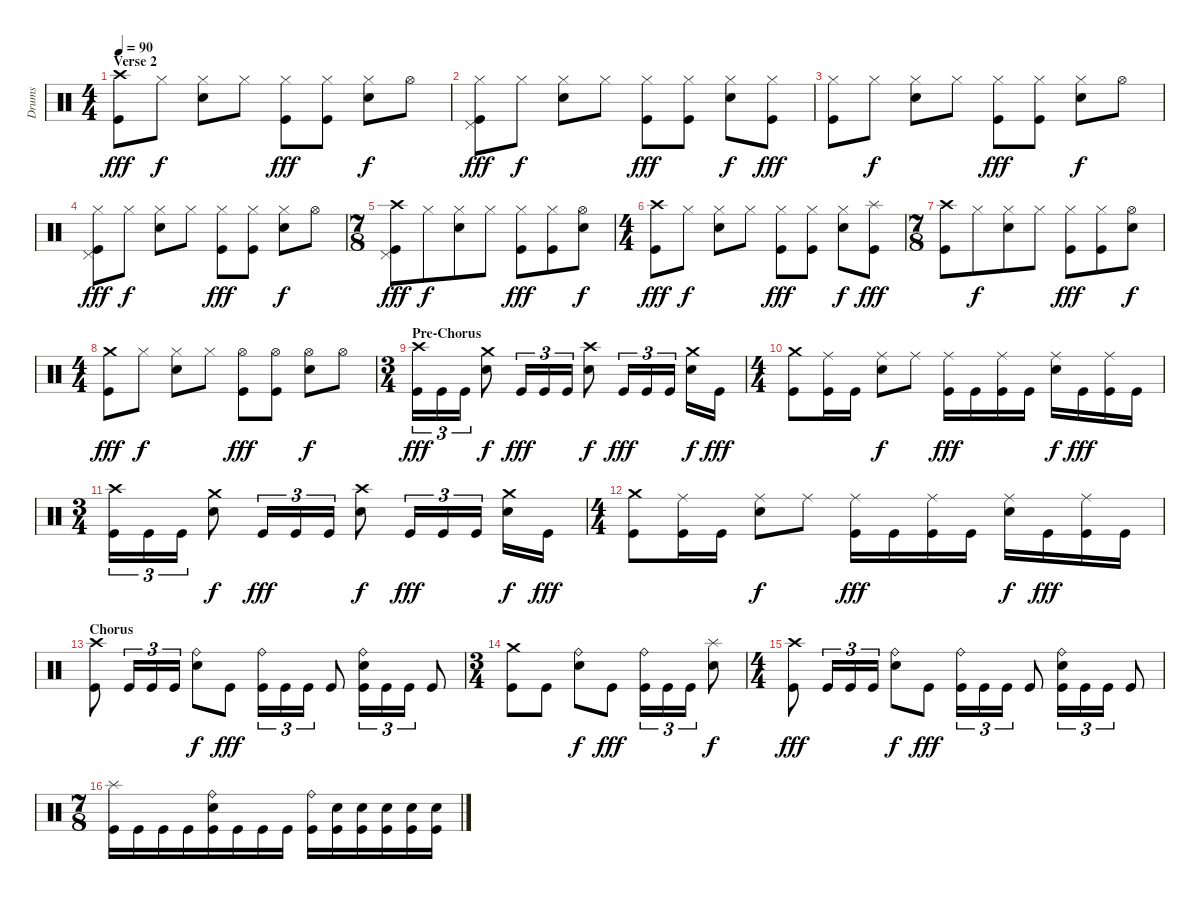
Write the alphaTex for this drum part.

\track ("Drums" "Drums") {instrument percussion}
\staff {score}
\articulation defaults
\ts (4 4)
\section ("" "Verse 2")
\tempo 90
\clef neutral
\ks c
("Crash high (hit)" "Kick (hit)").8{dy fff} "Hi-Hat (closed)".8{dy f} ("Hi-Hat (closed)" "Electric Snare (hit)").8 "Hi-Hat (closed)".8 ("Hi-Hat (closed)" "Kick (hit)").8{dy fff} ("Hi-Hat (closed)" "Kick (hit)").8 ("Hi-Hat (closed)" "Electric Snare (hit)").8{dy f} "Hi-Hat (open)".8 |
("Hi-Hat (closed)" "Pedal Hi-Hat (hit)" "Kick (hit)").8{dy fff} "Hi-Hat (closed)".8{dy f} ("Hi-Hat (closed)" "Electric Snare (hit)").8 "Hi-Hat (closed)".8 ("Hi-Hat (closed)" "Kick (hit)").8{dy fff} ("Hi-Hat (closed)" "Kick (hit)").8 ("Hi-Hat (closed)" "Electric Snare (hit)").8{dy f} ("Hi-Hat (closed)" "Kick (hit)").8{dy fff} |
("Hi-Hat (closed)" "Kick (hit)").8 "Hi-Hat (closed)".8{dy f} ("Hi-Hat (closed)" "Electric Snare (hit)").8 "Hi-Hat (closed)".8 ("Hi-Hat (closed)" "Kick (hit)").8{dy fff} ("Hi-Hat (closed)" "Kick (hit)").8 ("Hi-Hat (closed)" "Electric Snare (hit)").8{dy f} "Hi-Hat (open)".8 |
("Hi-Hat (closed)" "Pedal Hi-Hat (hit)" "Kick (hit)").8{dy fff} "Hi-Hat (closed)".8{dy f} ("Hi-Hat (closed)" "Electric Snare (hit)").8 "Hi-Hat (closed)".8 ("Hi-Hat (closed)" "Kick (hit)").8{dy fff} ("Hi-Hat (closed)" "Kick (hit)").8 ("Hi-Hat (closed)" "Electric Snare (hit)").8{dy f} "Hi-Hat (open)".8 |
\ts (7 8)
("Crash high (hit)" "Pedal Hi-Hat (hit)" "Kick (hit)").8{dy fff} "Hi-Hat (closed)".8{dy f} ("Hi-Hat (closed)" "Electric Snare (hit)").8 "Hi-Hat (closed)".8 ("Hi-Hat (closed)" "Kick (hit)").8{dy fff} ("Hi-Hat (closed)" "Kick (hit)").8 ("Hi-Hat (open)" "Electric Snare (hit)").8{dy f} |
\ts (4 4)
("Crash high (hit)" "Kick (hit)").8{dy fff} "Hi-Hat (closed)".8{dy f} ("Hi-Hat (closed)" "Electric Snare (hit)").8 "Hi-Hat (closed)".8 ("Hi-Hat (closed)" "Kick (hit)").8{dy fff} ("Hi-Hat (closed)" "Kick (hit)").8 ("Hi-Hat (closed)" "Electric Snare (hit)").8{dy f} ("Splash (hit)" "Kick (hit)").8{dy fff} |
\ts (7 8)
("Crash high (hit)" "Kick (hit)").8 "Hi-Hat (closed)".8{dy f} ("Hi-Hat (closed)" "Electric Snare (hit)").8 "Hi-Hat (closed)".8 ("Hi-Hat (closed)" "Kick (hit)").8{dy fff} ("Hi-Hat (closed)" "Kick (hit)").8 ("Hi-Hat (open)" "Electric Snare (hit)").8{dy f} |
\ts (4 4)
("Crash medium (hit)" "Kick (hit)").8{dy fff} "Hi-Hat (closed)".8{dy f} ("Hi-Hat (closed)" "Electric Snare (hit)").8 "Hi-Hat (closed)".8 ("Hi-Hat (open)" "Kick (hit)").8{dy fff} ("Hi-Hat (open)" "Kick (hit)").8 ("Hi-Hat (open)" "Electric Snare (hit)").8{dy f} "Hi-Hat (open)".8 |
\ts (3 4)
\section ("" "Pre-Chorus")
("Crash high (hit)" "Kick (hit)").16{tu (3 2) dy fff} "Kick (hit)".16{tu (3 2)} "Kick (hit)".16{tu (3 2)} ("Crash medium (hit)" "Electric Snare (hit)").8{dy f} "Kick (hit)".16{tu (3 2) dy fff} "Kick (hit)".16{tu (3 2)} "Kick (hit)".16{tu (3 2)} ("Crash high (hit)" "Electric Snare (hit)").8{dy f} "Kick (hit)".16{tu (3 2) dy fff} "Kick (hit)".16{tu (3 2)} "Kick (hit)".16{tu (3 2)} ("Crash medium (hit)" "Electric Snare (hit)").16{dy f} "Kick (hit)".16{dy fff} |
\ts (4 4)
("Crash medium (hit)" "Kick (hit)").8 ("Ride (middle)" "Kick (hit)").16 "Kick (hit)".16 ("Ride (middle)" "Electric Snare (hit)").8{dy f} "Ride (middle)".8 ("Ride (middle)" "Kick (hit)").16{dy fff} "Kick (hit)".16 ("Ride (middle)" "Kick (hit)").16 "Kick (hit)".16 ("Ride (middle)" "Electric Snare (hit)").16{dy f} "Kick (hit)".16{dy fff} ("Ride (middle)" "Kick (hit)").16 "Kick (hit)".16 |
\ts (3 4)
("Crash high (hit)" "Kick (hit)").16{tu (3 2)} "Kick (hit)".16{tu (3 2)} "Kick (hit)".16{tu (3 2)} ("Crash medium (hit)" "Electric Snare (hit)").8{dy f} "Kick (hit)".16{tu (3 2) dy fff} "Kick (hit)".16{tu (3 2)} "Kick (hit)".16{tu (3 2)} ("Crash high (hit)" "Electric Snare (hit)").8{dy f} "Kick (hit)".16{tu (3 2) dy fff} "Kick (hit)".16{tu (3 2)} "Kick (hit)".16{tu (3 2)} ("Crash medium (hit)" "Electric Snare (hit)").16{dy f} "Kick (hit)".16{dy fff} |
\ts (4 4)
("Crash medium (hit)" "Kick (hit)").8 ("Ride (middle)" "Kick (hit)").16 "Kick (hit)".16 ("Ride (middle)" "Electric Snare (hit)").8{dy f} "Ride (middle)".8 ("Ride (middle)" "Kick (hit)").16{dy fff} "Kick (hit)".16 ("Ride (middle)" "Kick (hit)").16 "Kick (hit)".16 ("Ride (middle)" "Electric Snare (hit)").16{dy f} "Kick (hit)".16{dy fff} ("Ride (middle)" "Kick (hit)").16 "Kick (hit)".16 |
\section ("" "Chorus")
("Crash high (hit)" "Kick (hit)").8 "Kick (hit)".16{tu (3 2)} "Kick (hit)".16{tu (3 2)} "Kick (hit)".16{tu (3 2)} ("Ride (bell)" "Electric Snare (hit)").8{dy f} "Kick (hit)".8{dy fff} ("Ride (bell)" "Kick (hit)").16{tu (3 2)} "Kick (hit)".16{tu (3 2)} "Kick (hit)".16{tu (3 2)} "Kick (hit)".8 ("Ride (bell)" "Electric Snare (hit)" "Kick (hit)").16{tu (3 2)} "Kick (hit)".16{tu (3 2)} "Kick (hit)".16{tu (3 2)} "Kick (hit)".8 |
\ts (3 4)
("Crash medium (hit)" "Kick (hit)").8 "Kick (hit)".8 ("Ride (bell)" "Electric Snare (hit)").8{dy f} "Kick (hit)".8{dy fff} ("Ride (bell)" "Kick (hit)").16{tu (3 2)} "Kick (hit)".16{tu (3 2)} "Kick (hit)".16{tu (3 2)} ("Splash (hit)" "Electric Snare (hit)").8{dy f} |
\ts (4 4)
("Crash high (hit)" "Kick (hit)").8{dy fff} "Kick (hit)".16{tu (3 2)} "Kick (hit)".16{tu (3 2)} "Kick (hit)".16{tu (3 2)} ("Ride (bell)" "Electric Snare (hit)").8{dy f} "Kick (hit)".8{dy fff} ("Ride (bell)" "Kick (hit)").16{tu (3 2)} "Kick (hit)".16{tu (3 2)} "Kick (hit)".16{tu (3 2)} "Kick (hit)".8 ("Ride (bell)" "Electric Snare (hit)" "Kick (hit)").16{tu (3 2)} "Kick (hit)".16{tu (3 2)} "Kick (hit)".16{tu (3 2)} "Kick (hit)".8 |
\ts (7 8)
("Splash (hit)" "Kick (hit)").16 "Kick (hit)".16 "Kick (hit)".16 "Kick (hit)".16 ("Ride (bell)" "Electric Snare (hit)" "Kick (hit)").16 "Kick (hit)".16 "Kick (hit)".16 "Kick (hit)".16 ("Ride (bell)" "Kick (hit)").16 ("Electric Snare (hit)" "Kick (hit)").16 ("Electric Snare (hit)" "Kick (hit)").16 ("Electric Snare (hit)" "Kick (hit)").16 ("Electric Snare (hit)" "Kick (hit)").16 ("Electric Snare (hit)" "Kick (hit)").16
